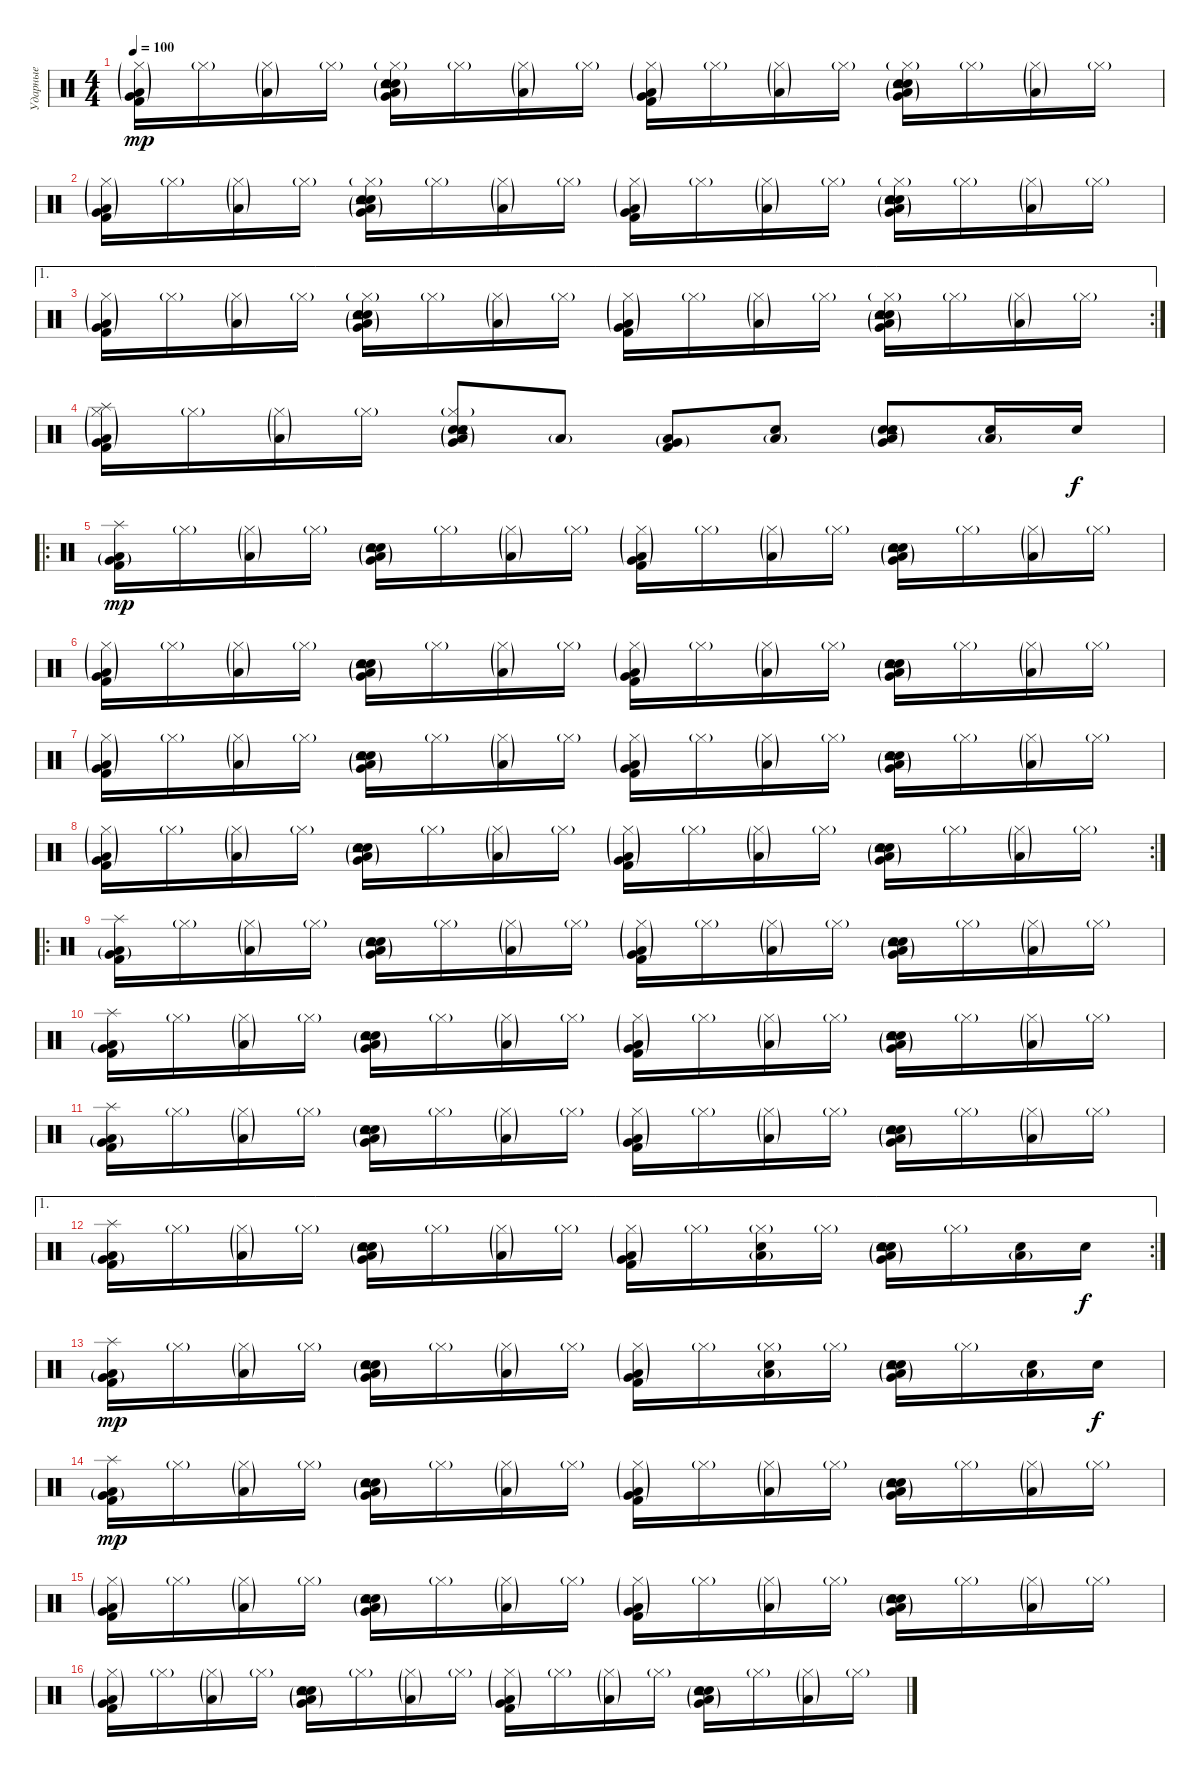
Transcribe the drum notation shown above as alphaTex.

\track ("Ударные" "Ударные") {instrument percussion}
\staff {score}
\articulation defaults
\ts (4 4)
\tempo 100
\clef neutral
\ks c
("Kick (hit) 2" "Very Low Tom (hit)"{g} "Hi-Hat (closed)"{g} "Low Floor Tom (hit)"{g}).16{dy mp} "Hi-Hat (closed)"{g}.16 ("Low Floor Tom (hit)"{g} "Hi-Hat (closed)"{g}).16 "Hi-Hat (closed)"{g}.16 ("Hand Clap (hit)" "Snare (hit) 2" "Hi-Hat (closed)"{g} "Very Low Tom (hit)"{g} "Tambourine (hit)"{g} "Low Floor Tom (hit)"{g}).16 "Hi-Hat (closed)"{g}.16 ("Low Floor Tom (hit)"{g} "Hi-Hat (closed)"{g}).16 "Hi-Hat (closed)"{g}.16 ("Kick (hit) 2" "Very Low Tom (hit)"{g} "Hi-Hat (closed)"{g} "Low Floor Tom (hit)"{g}).16 "Hi-Hat (closed)"{g}.16 ("Low Floor Tom (hit)"{g} "Hi-Hat (closed)"{g}).16 "Hi-Hat (closed)"{g}.16 ("Hand Clap (hit)" "Snare (hit) 2" "Hi-Hat (closed)"{g} "Very Low Tom (hit)"{g} "Tambourine (hit)"{g} "Low Floor Tom (hit)"{g}).16 "Hi-Hat (closed)"{g}.16 ("Low Floor Tom (hit)"{g} "Hi-Hat (closed)"{g}).16 "Hi-Hat (closed)"{g}.16 |
("Kick (hit) 2" "Very Low Tom (hit)"{g} "Hi-Hat (closed)"{g} "Low Floor Tom (hit)"{g}).16 "Hi-Hat (closed)"{g}.16 ("Low Floor Tom (hit)"{g} "Hi-Hat (closed)"{g}).16 "Hi-Hat (closed)"{g}.16 ("Hand Clap (hit)" "Snare (hit) 2" "Hi-Hat (closed)"{g} "Very Low Tom (hit)"{g} "Tambourine (hit)"{g} "Low Floor Tom (hit)"{g}).16 "Hi-Hat (closed)"{g}.16 ("Low Floor Tom (hit)"{g} "Hi-Hat (closed)"{g}).16 "Hi-Hat (closed)"{g}.16 ("Kick (hit) 2" "Very Low Tom (hit)"{g} "Hi-Hat (closed)"{g} "Low Floor Tom (hit)"{g}).16 "Hi-Hat (closed)"{g}.16 ("Low Floor Tom (hit)"{g} "Hi-Hat (closed)"{g}).16 "Hi-Hat (closed)"{g}.16 ("Hand Clap (hit)" "Snare (hit) 2" "Hi-Hat (closed)"{g} "Very Low Tom (hit)"{g} "Tambourine (hit)"{g} "Low Floor Tom (hit)"{g}).16 "Hi-Hat (closed)"{g}.16 ("Low Floor Tom (hit)"{g} "Hi-Hat (closed)"{g}).16 "Hi-Hat (closed)"{g}.16 |
\ae 1
\rc 2
("Kick (hit) 2" "Very Low Tom (hit)"{g} "Hi-Hat (closed)"{g} "Low Floor Tom (hit)"{g}).16 "Hi-Hat (closed)"{g}.16 ("Low Floor Tom (hit)"{g} "Hi-Hat (closed)"{g}).16 "Hi-Hat (closed)"{g}.16 ("Hand Clap (hit)" "Snare (hit) 2" "Hi-Hat (closed)"{g} "Very Low Tom (hit)"{g} "Tambourine (hit)"{g} "Low Floor Tom (hit)"{g}).16 "Hi-Hat (closed)"{g}.16 ("Low Floor Tom (hit)"{g} "Hi-Hat (closed)"{g}).16 "Hi-Hat (closed)"{g}.16 ("Kick (hit) 2" "Very Low Tom (hit)"{g} "Hi-Hat (closed)"{g} "Low Floor Tom (hit)"{g}).16 "Hi-Hat (closed)"{g}.16 ("Low Floor Tom (hit)"{g} "Hi-Hat (closed)"{g}).16 "Hi-Hat (closed)"{g}.16 ("Hand Clap (hit)" "Snare (hit) 2" "Hi-Hat (closed)"{g} "Very Low Tom (hit)"{g} "Tambourine (hit)"{g} "Low Floor Tom (hit)"{g}).16 "Hi-Hat (closed)"{g}.16 ("Low Floor Tom (hit)"{g} "Hi-Hat (closed)"{g}).16 "Hi-Hat (closed)"{g}.16 |
("Splash (hit)" "Kick (hit) 2" "Very Low Tom (hit)"{g} "Hi-Hat (closed)"{g} "Low Floor Tom (hit)"{g}).16 "Hi-Hat (closed)"{g}.16 ("Low Floor Tom (hit)"{g} "Hi-Hat (closed)"{g}).16 "Hi-Hat (closed)"{g}.16 ("Hand Clap (hit)" "Snare (hit) 2" "Hi-Hat (closed)"{g} "Very Low Tom (hit)"{g} "Tambourine (hit)"{g} "Low Floor Tom (hit)"{g}).8 "Low Floor Tom (hit)"{g}.8 ("Kick (hit) 2" "Very Low Tom (hit)"{g} "Low Floor Tom (hit)"{g}).8 ("Hand Clap (hit)" "Low Floor Tom (hit)"{g}).8 ("Hand Clap (hit)" "Snare (hit) 2" "Very Low Tom (hit)"{g} "Tambourine (hit)"{g} "Low Floor Tom (hit)"{g}).8 ("Low Floor Tom (hit)"{g} "Snare (hit) 2").16 "Snare (hit) 2".16{dy f} |
\ro
("Splash (hit)" "Kick (hit) 2" "Very Low Tom (hit)"{g} "Low Floor Tom (hit)"{g}).16{dy mp} "Hi-Hat (closed)"{g}.16 ("Low Floor Tom (hit)"{g} "Hi-Hat (closed)"{g}).16 "Hi-Hat (closed)"{g}.16 ("Hand Clap (hit)" "Snare (hit) 2" "Very Low Tom (hit)"{g} "Tambourine (hit)"{g} "Low Floor Tom (hit)"{g}).16 "Hi-Hat (closed)"{g}.16 ("Low Floor Tom (hit)"{g} "Hi-Hat (closed)"{g}).16 "Hi-Hat (closed)"{g}.16 ("Kick (hit) 2" "Very Low Tom (hit)"{g} "Hi-Hat (closed)"{g} "Low Floor Tom (hit)"{g}).16 "Hi-Hat (closed)"{g}.16 ("Low Floor Tom (hit)"{g} "Hi-Hat (closed)"{g}).16 "Hi-Hat (closed)"{g}.16 ("Hand Clap (hit)" "Snare (hit) 2" "Very Low Tom (hit)"{g} "Tambourine (hit)"{g} "Low Floor Tom (hit)"{g}).16 "Hi-Hat (closed)"{g}.16 ("Low Floor Tom (hit)"{g} "Hi-Hat (closed)"{g}).16 "Hi-Hat (closed)"{g}.16 |
("Kick (hit) 2" "Very Low Tom (hit)"{g} "Hi-Hat (closed)"{g} "Low Floor Tom (hit)"{g}).16 "Hi-Hat (closed)"{g}.16 ("Low Floor Tom (hit)"{g} "Hi-Hat (closed)"{g}).16 "Hi-Hat (closed)"{g}.16 ("Hand Clap (hit)" "Snare (hit) 2" "Very Low Tom (hit)"{g} "Tambourine (hit)"{g} "Low Floor Tom (hit)"{g}).16 "Hi-Hat (closed)"{g}.16 ("Low Floor Tom (hit)"{g} "Hi-Hat (closed)"{g}).16 "Hi-Hat (closed)"{g}.16 ("Kick (hit) 2" "Very Low Tom (hit)"{g} "Hi-Hat (closed)"{g} "Low Floor Tom (hit)"{g}).16 "Hi-Hat (closed)"{g}.16 ("Low Floor Tom (hit)"{g} "Hi-Hat (closed)"{g}).16 "Hi-Hat (closed)"{g}.16 ("Hand Clap (hit)" "Snare (hit) 2" "Very Low Tom (hit)"{g} "Tambourine (hit)"{g} "Low Floor Tom (hit)"{g}).16 "Hi-Hat (closed)"{g}.16 ("Low Floor Tom (hit)"{g} "Hi-Hat (closed)"{g}).16 "Hi-Hat (closed)"{g}.16 |
("Kick (hit) 2" "Very Low Tom (hit)"{g} "Hi-Hat (closed)"{g} "Low Floor Tom (hit)"{g}).16 "Hi-Hat (closed)"{g}.16 ("Low Floor Tom (hit)"{g} "Hi-Hat (closed)"{g}).16 "Hi-Hat (closed)"{g}.16 ("Hand Clap (hit)" "Snare (hit) 2" "Very Low Tom (hit)"{g} "Tambourine (hit)"{g} "Low Floor Tom (hit)"{g}).16 "Hi-Hat (closed)"{g}.16 ("Low Floor Tom (hit)"{g} "Hi-Hat (closed)"{g}).16 "Hi-Hat (closed)"{g}.16 ("Kick (hit) 2" "Very Low Tom (hit)"{g} "Hi-Hat (closed)"{g} "Low Floor Tom (hit)"{g}).16 "Hi-Hat (closed)"{g}.16 ("Low Floor Tom (hit)"{g} "Hi-Hat (closed)"{g}).16 "Hi-Hat (closed)"{g}.16 ("Hand Clap (hit)" "Snare (hit) 2" "Very Low Tom (hit)"{g} "Tambourine (hit)"{g} "Low Floor Tom (hit)"{g}).16 "Hi-Hat (closed)"{g}.16 ("Low Floor Tom (hit)"{g} "Hi-Hat (closed)"{g}).16 "Hi-Hat (closed)"{g}.16 |
\rc 2
("Kick (hit) 2" "Very Low Tom (hit)"{g} "Hi-Hat (closed)"{g} "Low Floor Tom (hit)"{g}).16 "Hi-Hat (closed)"{g}.16 ("Low Floor Tom (hit)"{g} "Hi-Hat (closed)"{g}).16 "Hi-Hat (closed)"{g}.16 ("Hand Clap (hit)" "Snare (hit) 2" "Very Low Tom (hit)"{g} "Tambourine (hit)"{g} "Low Floor Tom (hit)"{g}).16 "Hi-Hat (closed)"{g}.16 ("Low Floor Tom (hit)"{g} "Hi-Hat (closed)"{g}).16 "Hi-Hat (closed)"{g}.16 ("Kick (hit) 2" "Very Low Tom (hit)"{g} "Hi-Hat (closed)"{g} "Low Floor Tom (hit)"{g}).16 "Hi-Hat (closed)"{g}.16 ("Low Floor Tom (hit)"{g} "Hi-Hat (closed)"{g}).16 "Hi-Hat (closed)"{g}.16 ("Hand Clap (hit)" "Snare (hit) 2" "Very Low Tom (hit)"{g} "Tambourine (hit)"{g} "Low Floor Tom (hit)"{g}).16 "Hi-Hat (closed)"{g}.16 ("Low Floor Tom (hit)"{g} "Hi-Hat (closed)"{g}).16 "Hi-Hat (closed)"{g}.16 |
\ro
("Splash (hit)" "Kick (hit) 2" "Very Low Tom (hit)"{g} "Low Floor Tom (hit)"{g}).16 "Hi-Hat (closed)"{g}.16 ("Low Floor Tom (hit)"{g} "Hi-Hat (closed)"{g}).16 "Hi-Hat (closed)"{g}.16 ("Hand Clap (hit)" "Snare (hit) 2" "Very Low Tom (hit)"{g} "Tambourine (hit)"{g} "Low Floor Tom (hit)"{g}).16 "Hi-Hat (closed)"{g}.16 ("Low Floor Tom (hit)"{g} "Hi-Hat (closed)"{g}).16 "Hi-Hat (closed)"{g}.16 ("Kick (hit) 2" "Very Low Tom (hit)"{g} "Hi-Hat (closed)"{g} "Low Floor Tom (hit)"{g}).16 "Hi-Hat (closed)"{g}.16 ("Low Floor Tom (hit)"{g} "Hi-Hat (closed)"{g}).16 "Hi-Hat (closed)"{g}.16 ("Hand Clap (hit)" "Snare (hit) 2" "Very Low Tom (hit)"{g} "Tambourine (hit)"{g} "Low Floor Tom (hit)"{g}).16 "Hi-Hat (closed)"{g}.16 ("Low Floor Tom (hit)"{g} "Hi-Hat (closed)"{g}).16 "Hi-Hat (closed)"{g}.16 |
("Splash (hit)" "Kick (hit) 2" "Very Low Tom (hit)"{g} "Low Floor Tom (hit)"{g}).16 "Hi-Hat (closed)"{g}.16 ("Low Floor Tom (hit)"{g} "Hi-Hat (closed)"{g}).16 "Hi-Hat (closed)"{g}.16 ("Hand Clap (hit)" "Snare (hit) 2" "Very Low Tom (hit)"{g} "Tambourine (hit)"{g} "Low Floor Tom (hit)"{g}).16 "Hi-Hat (closed)"{g}.16 ("Low Floor Tom (hit)"{g} "Hi-Hat (closed)"{g}).16 "Hi-Hat (closed)"{g}.16 ("Kick (hit) 2" "Very Low Tom (hit)"{g} "Hi-Hat (closed)"{g} "Low Floor Tom (hit)"{g}).16 "Hi-Hat (closed)"{g}.16 ("Low Floor Tom (hit)"{g} "Hi-Hat (closed)"{g}).16 "Hi-Hat (closed)"{g}.16 ("Hand Clap (hit)" "Snare (hit) 2" "Very Low Tom (hit)"{g} "Tambourine (hit)"{g} "Low Floor Tom (hit)"{g}).16 "Hi-Hat (closed)"{g}.16 ("Low Floor Tom (hit)"{g} "Hi-Hat (closed)"{g}).16 "Hi-Hat (closed)"{g}.16 |
("Splash (hit)" "Kick (hit) 2" "Very Low Tom (hit)"{g} "Low Floor Tom (hit)"{g}).16 "Hi-Hat (closed)"{g}.16 ("Low Floor Tom (hit)"{g} "Hi-Hat (closed)"{g}).16 "Hi-Hat (closed)"{g}.16 ("Hand Clap (hit)" "Snare (hit) 2" "Very Low Tom (hit)"{g} "Tambourine (hit)"{g} "Low Floor Tom (hit)"{g}).16 "Hi-Hat (closed)"{g}.16 ("Low Floor Tom (hit)"{g} "Hi-Hat (closed)"{g}).16 "Hi-Hat (closed)"{g}.16 ("Kick (hit) 2" "Very Low Tom (hit)"{g} "Hi-Hat (closed)"{g} "Low Floor Tom (hit)"{g}).16 "Hi-Hat (closed)"{g}.16 ("Low Floor Tom (hit)"{g} "Hi-Hat (closed)"{g}).16 "Hi-Hat (closed)"{g}.16 ("Hand Clap (hit)" "Snare (hit) 2" "Very Low Tom (hit)"{g} "Tambourine (hit)"{g} "Low Floor Tom (hit)"{g}).16 "Hi-Hat (closed)"{g}.16 ("Low Floor Tom (hit)"{g} "Hi-Hat (closed)"{g}).16 "Hi-Hat (closed)"{g}.16 |
\ae 1
\rc 2
("Splash (hit)" "Kick (hit) 2" "Very Low Tom (hit)"{g} "Low Floor Tom (hit)"{g}).16 "Hi-Hat (closed)"{g}.16 ("Low Floor Tom (hit)"{g} "Hi-Hat (closed)"{g}).16 "Hi-Hat (closed)"{g}.16 ("Hand Clap (hit)" "Snare (hit) 2" "Very Low Tom (hit)"{g} "Tambourine (hit)"{g} "Low Floor Tom (hit)"{g}).16 "Hi-Hat (closed)"{g}.16 ("Low Floor Tom (hit)"{g} "Hi-Hat (closed)"{g}).16 "Hi-Hat (closed)"{g}.16 ("Kick (hit) 2" "Very Low Tom (hit)"{g} "Hi-Hat (closed)"{g} "Low Floor Tom (hit)"{g}).16 "Hi-Hat (closed)"{g}.16 ("Hand Clap (hit)" "Low Floor Tom (hit)"{g} "Hi-Hat (closed)"{g}).16 "Hi-Hat (closed)"{g}.16 ("Hand Clap (hit)" "Snare (hit) 2" "Very Low Tom (hit)"{g} "Tambourine (hit)"{g} "Low Floor Tom (hit)"{g}).16 "Hi-Hat (closed)"{g}.16 ("Snare (hit) 2" "Low Floor Tom (hit)"{g}).16 "Snare (hit) 2".16{dy f} |
("Splash (hit)" "Kick (hit) 2" "Very Low Tom (hit)"{g} "Low Floor Tom (hit)"{g}).16{dy mp} "Hi-Hat (closed)"{g}.16 ("Low Floor Tom (hit)"{g} "Hi-Hat (closed)"{g}).16 "Hi-Hat (closed)"{g}.16 ("Hand Clap (hit)" "Snare (hit) 2" "Very Low Tom (hit)"{g} "Tambourine (hit)"{g} "Low Floor Tom (hit)"{g}).16 "Hi-Hat (closed)"{g}.16 ("Low Floor Tom (hit)"{g} "Hi-Hat (closed)"{g}).16 "Hi-Hat (closed)"{g}.16 ("Kick (hit) 2" "Very Low Tom (hit)"{g} "Hi-Hat (closed)"{g} "Low Floor Tom (hit)"{g}).16 "Hi-Hat (closed)"{g}.16 ("Hand Clap (hit)" "Low Floor Tom (hit)"{g} "Hi-Hat (closed)"{g}).16 "Hi-Hat (closed)"{g}.16 ("Hand Clap (hit)" "Snare (hit) 2" "Very Low Tom (hit)"{g} "Tambourine (hit)"{g} "Low Floor Tom (hit)"{g}).16 "Hi-Hat (closed)"{g}.16 ("Snare (hit) 2" "Low Floor Tom (hit)"{g}).16 "Snare (hit) 2".16{dy f} |
("Splash (hit)" "Kick (hit) 2" "Very Low Tom (hit)"{g} "Low Floor Tom (hit)"{g}).16{dy mp} "Hi-Hat (closed)"{g}.16 ("Low Floor Tom (hit)"{g} "Hi-Hat (closed)"{g}).16 "Hi-Hat (closed)"{g}.16 ("Hand Clap (hit)" "Snare (hit) 2" "Very Low Tom (hit)"{g} "Tambourine (hit)"{g} "Low Floor Tom (hit)"{g}).16 "Hi-Hat (closed)"{g}.16 ("Low Floor Tom (hit)"{g} "Hi-Hat (closed)"{g}).16 "Hi-Hat (closed)"{g}.16 ("Kick (hit) 2" "Very Low Tom (hit)"{g} "Hi-Hat (closed)"{g} "Low Floor Tom (hit)"{g}).16 "Hi-Hat (closed)"{g}.16 ("Low Floor Tom (hit)"{g} "Hi-Hat (closed)"{g}).16 "Hi-Hat (closed)"{g}.16 ("Hand Clap (hit)" "Snare (hit) 2" "Very Low Tom (hit)"{g} "Tambourine (hit)"{g} "Low Floor Tom (hit)"{g}).16 "Hi-Hat (closed)"{g}.16 ("Low Floor Tom (hit)"{g} "Hi-Hat (closed)"{g}).16 "Hi-Hat (closed)"{g}.16 |
("Kick (hit) 2" "Very Low Tom (hit)"{g} "Hi-Hat (closed)"{g} "Low Floor Tom (hit)"{g}).16 "Hi-Hat (closed)"{g}.16 ("Low Floor Tom (hit)"{g} "Hi-Hat (closed)"{g}).16 "Hi-Hat (closed)"{g}.16 ("Hand Clap (hit)" "Snare (hit) 2" "Very Low Tom (hit)"{g} "Tambourine (hit)"{g} "Low Floor Tom (hit)"{g}).16 "Hi-Hat (closed)"{g}.16 ("Low Floor Tom (hit)"{g} "Hi-Hat (closed)"{g}).16 "Hi-Hat (closed)"{g}.16 ("Kick (hit) 2" "Very Low Tom (hit)"{g} "Hi-Hat (closed)"{g} "Low Floor Tom (hit)"{g}).16 "Hi-Hat (closed)"{g}.16 ("Low Floor Tom (hit)"{g} "Hi-Hat (closed)"{g}).16 "Hi-Hat (closed)"{g}.16 ("Hand Clap (hit)" "Snare (hit) 2" "Very Low Tom (hit)"{g} "Tambourine (hit)"{g} "Low Floor Tom (hit)"{g}).16 "Hi-Hat (closed)"{g}.16 ("Low Floor Tom (hit)"{g} "Hi-Hat (closed)"{g}).16 "Hi-Hat (closed)"{g}.16 |
("Kick (hit) 2" "Very Low Tom (hit)"{g} "Hi-Hat (closed)"{g} "Low Floor Tom (hit)"{g}).16 "Hi-Hat (closed)"{g}.16 ("Low Floor Tom (hit)"{g} "Hi-Hat (closed)"{g}).16 "Hi-Hat (closed)"{g}.16 ("Hand Clap (hit)" "Snare (hit) 2" "Very Low Tom (hit)"{g} "Tambourine (hit)"{g} "Low Floor Tom (hit)"{g}).16 "Hi-Hat (closed)"{g}.16 ("Low Floor Tom (hit)"{g} "Hi-Hat (closed)"{g}).16 "Hi-Hat (closed)"{g}.16 ("Kick (hit) 2" "Very Low Tom (hit)"{g} "Hi-Hat (closed)"{g} "Low Floor Tom (hit)"{g}).16 "Hi-Hat (closed)"{g}.16 ("Low Floor Tom (hit)"{g} "Hi-Hat (closed)"{g}).16 "Hi-Hat (closed)"{g}.16 ("Hand Clap (hit)" "Snare (hit) 2" "Very Low Tom (hit)"{g} "Tambourine (hit)"{g} "Low Floor Tom (hit)"{g}).16 "Hi-Hat (closed)"{g}.16 ("Low Floor Tom (hit)"{g} "Hi-Hat (closed)"{g}).16 "Hi-Hat (closed)"{g}.16
